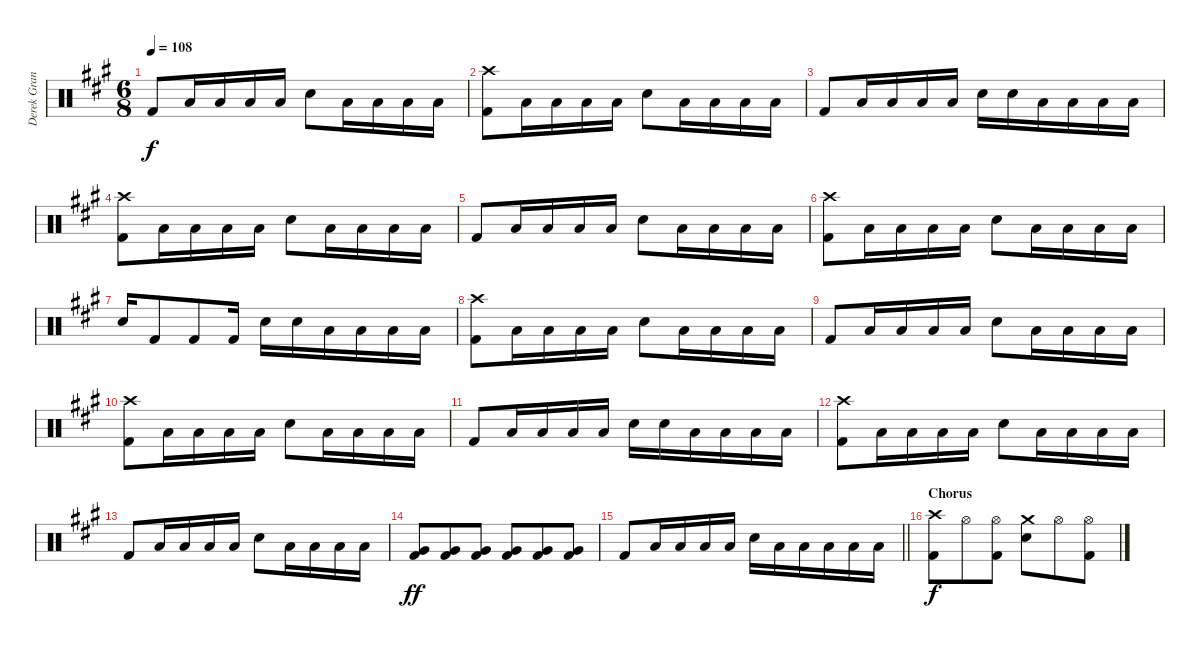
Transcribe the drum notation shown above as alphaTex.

\track ("Derek Grant - Drums" "Derek Gran") {instrument percussion}
\staff {score}
\articulation defaults
\ts (6 8)
\tempo 108
\clef neutral
\ks a "Kick (hit) 2".8{dy f} "Low Tom (hit)".16 "Low Floor Tom (hit)".16 "Low Tom (hit)".16 "Low Floor Tom (hit)".16 "Snare (hit) 2".8 "Low Tom (hit)".16 "Low Floor Tom (hit)".16 "Low Tom (hit)".16 "Low Floor Tom (hit)".16
|
("Crash high (hit)" "Kick (hit) 2").8 "Low Tom (hit)".16 "Low Floor Tom (hit)".16 "Low Tom (hit)".16 "Low Floor Tom (hit)".16 "Snare (hit) 2".8 "Low Tom (hit)".16 "Low Floor Tom (hit)".16 "Low Tom (hit)".16 "Low Floor Tom (hit)".16 |
"Kick (hit) 2".8 "Low Tom (hit)".16 "Low Floor Tom (hit)".16 "Low Tom (hit)".16 "Low Floor Tom (hit)".16 "Snare (hit) 2".16 "Snare (hit) 2".16 "Low Tom (hit)".16 "Low Floor Tom (hit)".16 "Low Tom (hit)".16 "Low Floor Tom (hit)".16 |
("Crash high (hit)" "Kick (hit) 2").8 "Low Tom (hit)".16 "Low Floor Tom (hit)".16 "Low Tom (hit)".16 "Low Floor Tom (hit)".16 "Snare (hit) 2".8 "Low Tom (hit)".16 "Low Floor Tom (hit)".16 "Low Tom (hit)".16 "Low Floor Tom (hit)".16 |
"Kick (hit) 2".8 "Low Tom (hit)".16 "Low Floor Tom (hit)".16 "Low Tom (hit)".16 "Low Floor Tom (hit)".16 "Snare (hit) 2".8 "Low Tom (hit)".16 "Low Floor Tom (hit)".16 "Low Tom (hit)".16 "Low Floor Tom (hit)".16 |
("Crash high (hit)" "Kick (hit) 2").8 "Low Tom (hit)".16 "Low Floor Tom (hit)".16 "Low Tom (hit)".16 "Low Floor Tom (hit)".16 "Snare (hit) 2".8 "Low Tom (hit)".16 "Low Floor Tom (hit)".16 "Low Tom (hit)".16 "Low Floor Tom (hit)".16 |
"Snare (hit) 2".16 "Kick (hit) 2".8 "Kick (hit) 2".8 "Kick (hit) 2".16 "Snare (hit) 2".16 "Snare (hit) 2".16 "Low Tom (hit)".16 "Low Floor Tom (hit)".16 "Low Tom (hit)".16 "Low Floor Tom (hit)".16 |
("Crash high (hit)" "Kick (hit) 2").8 "Low Tom (hit)".16 "Low Floor Tom (hit)".16 "Low Tom (hit)".16 "Low Floor Tom (hit)".16 "Snare (hit) 2".8 "Low Tom (hit)".16 "Low Floor Tom (hit)".16 "Low Tom (hit)".16 "Low Floor Tom (hit)".16 |
"Kick (hit) 2".8 "Low Tom (hit)".16 "Low Floor Tom (hit)".16 "Low Tom (hit)".16 "Low Floor Tom (hit)".16 "Snare (hit) 2".8 "Low Tom (hit)".16 "Low Floor Tom (hit)".16 "Low Tom (hit)".16 "Low Floor Tom (hit)".16 |
("Crash high (hit)" "Kick (hit) 2").8 "Low Tom (hit)".16 "Low Floor Tom (hit)".16 "Low Tom (hit)".16 "Low Floor Tom (hit)".16 "Snare (hit) 2".8 "Low Tom (hit)".16 "Low Floor Tom (hit)".16 "Low Tom (hit)".16 "Low Floor Tom (hit)".16 |
"Kick (hit) 2".8 "Low Tom (hit)".16 "Low Floor Tom (hit)".16 "Low Tom (hit)".16 "Low Floor Tom (hit)".16 "Snare (hit) 2".16 "Snare (hit) 2".16 "Low Tom (hit)".16 "Low Floor Tom (hit)".16 "Low Tom (hit)".16 "Low Floor Tom (hit)".16 |
("Crash high (hit)" "Kick (hit) 2").8 "Low Tom (hit)".16 "Low Floor Tom (hit)".16 "Low Tom (hit)".16 "Low Floor Tom (hit)".16 "Snare (hit) 2".8 "Low Tom (hit)".16 "Low Floor Tom (hit)".16 "Low Tom (hit)".16 "Low Floor Tom (hit)".16 |
"Kick (hit) 2".8 "Low Tom (hit)".16 "Low Floor Tom (hit)".16 "Low Tom (hit)".16 "Low Floor Tom (hit)".16 "Snare (hit) 2".8 "Low Tom (hit)".16 "Low Floor Tom (hit)".16 "Low Tom (hit)".16 "Low Floor Tom (hit)".16 |
("Very Low Tom (hit)" "Kick (hit) 2").8{dy ff} ("Very Low Tom (hit)" "Kick (hit) 2").8 ("Very Low Tom (hit)" "Kick (hit) 2").8 ("Very Low Tom (hit)" "Kick (hit) 2").8 ("Very Low Tom (hit)" "Kick (hit) 2").8 ("Very Low Tom (hit)" "Kick (hit) 2").8 |
\barLineRight lightlight "Kick (hit) 2".8 "Low Tom (hit)".16 "Low Floor Tom (hit)".16 "Low Tom (hit)".16 "Low Floor Tom (hit)".16 "Snare (hit) 2".16 "Low Floor Tom (hit)".16 "Low Tom (hit)".16 "Low Floor Tom (hit)".16 "Low Tom (hit)".16 "Low Floor Tom (hit)".16
|
\section ("" "Chorus")
("Kick (hit) 2" "Crash high (hit)").8{dy f} "Hi-Hat (open)".8 ("Hi-Hat (open)" "Kick (hit) 2").8 ("Snare (hit) 2" "Crash medium (hit)").8 "Hi-Hat (open)".8 ("Hi-Hat (open)" "Kick (hit) 2").8
